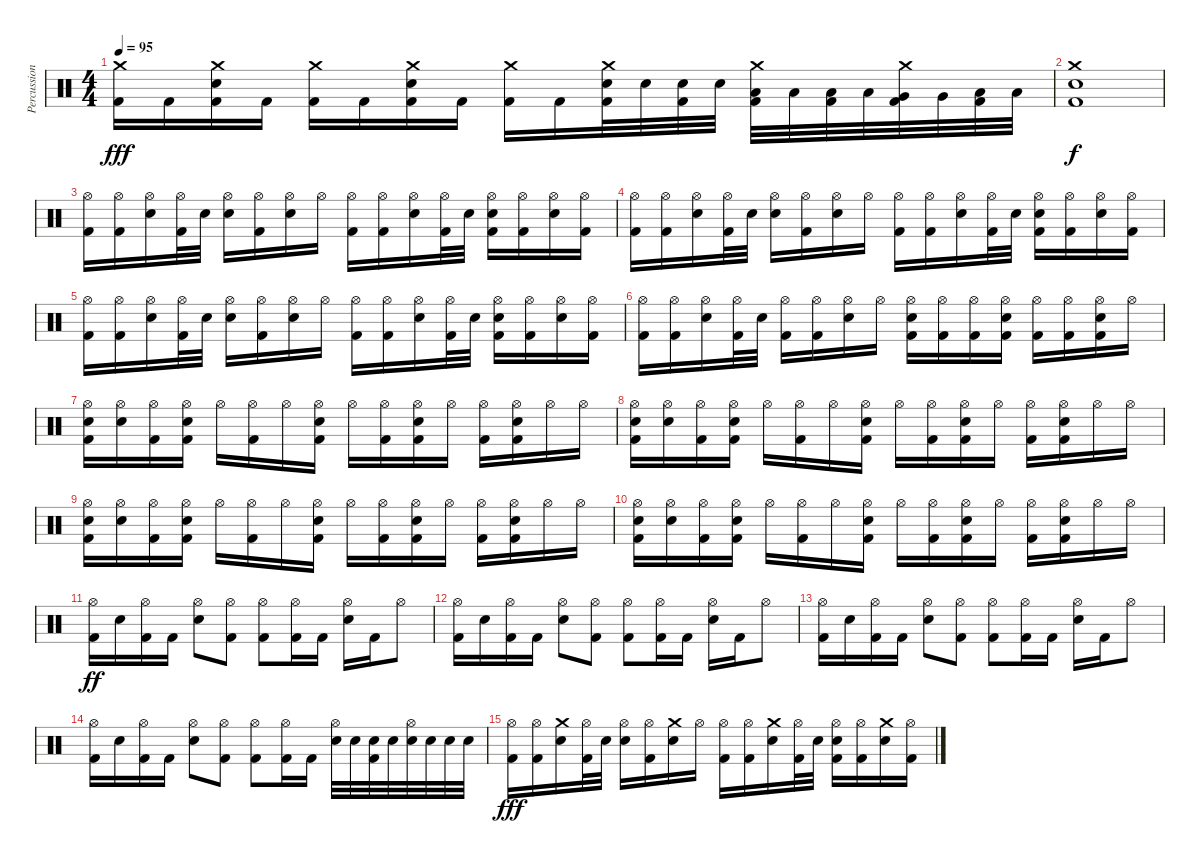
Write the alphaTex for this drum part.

\track ("Percussions" "Percussion") {instrument percussion}
\staff {score}
\articulation defaults
\ts (4 4)
\tempo 95
\clef neutral
\ks c
("Crash medium (hit)" "Kick (hit) 2").16{dy fff} "Kick (hit) 2".16 ("Electric Snare (hit)" "Crash medium (hit)" "Kick (hit) 2").16 "Kick (hit) 2".16 ("Crash medium (hit)" "Kick (hit) 2").16 "Kick (hit) 2".16 ("Electric Snare (hit)" "Crash medium (hit)" "Kick (hit) 2").16 "Kick (hit) 2".16 ("Crash medium (hit)" "Kick (hit) 2").16 "Kick (hit) 2".16 ("Electric Snare (hit)" "Crash medium (hit)" "Kick (hit) 2").32 "Electric Snare (hit)".32 ("Electric Snare (hit)" "Kick (hit) 2").32 "Electric Snare (hit)".32 ("Low Tom (hit)" "Crash medium (hit)" "Kick (hit) 2").32 "Low Tom (hit)".32 ("Low Tom (hit)" "Kick (hit) 2").32 "Low Tom (hit)".32 ("Very Low Tom (hit)" "Crash medium (hit)" "Kick (hit) 2").32 "Very Low Tom (hit)".32 ("Low Floor Tom (hit)" "Kick (hit) 2").32 "Low Floor Tom (hit)".32 |
("Electric Snare (hit)" "Crash medium (hit)" "Kick (hit) 2").1{dy f} |
("Hi-Hat (open)" "Kick (hit) 2").16 ("Hi-Hat (open)" "Kick (hit) 2").16 ("Electric Snare (hit)" "Hi-Hat (open)").16 ("Hi-Hat (open)" "Kick (hit) 2").32 "Electric Snare (hit)".32 ("Electric Snare (hit)" "Hi-Hat (open)").16 ("Hi-Hat (open)" "Kick (hit) 2").16 ("Electric Snare (hit)" "Hi-Hat (open)").16 "Hi-Hat (open)".16 ("Hi-Hat (open)" "Kick (hit) 2").16 ("Hi-Hat (open)" "Kick (hit) 2").16 ("Electric Snare (hit)" "Hi-Hat (open)").16 ("Hi-Hat (open)" "Kick (hit) 2").32 "Electric Snare (hit)".32 ("Electric Snare (hit)" "Hi-Hat (open)" "Kick (hit) 2").16 ("Hi-Hat (open)" "Kick (hit) 2").16 ("Electric Snare (hit)" "Hi-Hat (open)").16 ("Hi-Hat (open)" "Kick (hit) 2").16 |
("Hi-Hat (open)" "Kick (hit) 2").16 ("Hi-Hat (open)" "Kick (hit) 2").16 ("Electric Snare (hit)" "Hi-Hat (open)").16 ("Hi-Hat (open)" "Kick (hit) 2").32 "Electric Snare (hit)".32 ("Electric Snare (hit)" "Hi-Hat (open)").16 ("Hi-Hat (open)" "Kick (hit) 2").16 ("Electric Snare (hit)" "Hi-Hat (open)").16 "Hi-Hat (open)".16 ("Hi-Hat (open)" "Kick (hit) 2").16 ("Hi-Hat (open)" "Kick (hit) 2").16 ("Electric Snare (hit)" "Hi-Hat (open)").16 ("Hi-Hat (open)" "Kick (hit) 2").32 "Electric Snare (hit)".32 ("Electric Snare (hit)" "Hi-Hat (open)" "Kick (hit) 2").16 ("Hi-Hat (open)" "Kick (hit) 2").16 ("Electric Snare (hit)" "Hi-Hat (open)").16 ("Hi-Hat (open)" "Kick (hit) 2").16 |
("Hi-Hat (open)" "Kick (hit) 2").16 ("Hi-Hat (open)" "Kick (hit) 2").16 ("Electric Snare (hit)" "Hi-Hat (open)").16 ("Hi-Hat (open)" "Kick (hit) 2").32 "Electric Snare (hit)".32 ("Electric Snare (hit)" "Hi-Hat (open)").16 ("Hi-Hat (open)" "Kick (hit) 2").16 ("Electric Snare (hit)" "Hi-Hat (open)").16 "Hi-Hat (open)".16 ("Hi-Hat (open)" "Kick (hit) 2").16 ("Hi-Hat (open)" "Kick (hit) 2").16 ("Electric Snare (hit)" "Hi-Hat (open)").16 ("Hi-Hat (open)" "Kick (hit) 2").32 "Electric Snare (hit)".32 ("Electric Snare (hit)" "Hi-Hat (open)" "Kick (hit) 2").16 ("Hi-Hat (open)" "Kick (hit) 2").16 ("Electric Snare (hit)" "Hi-Hat (open)").16 ("Hi-Hat (open)" "Kick (hit) 2").16 |
("Hi-Hat (open)" "Kick (hit) 2").16 ("Hi-Hat (open)" "Kick (hit) 2").16 ("Electric Snare (hit)" "Hi-Hat (open)").16 ("Hi-Hat (open)" "Kick (hit) 2").32 "Electric Snare (hit)".32 ("Hi-Hat (open)" "Kick (hit) 2").16 ("Hi-Hat (open)" "Kick (hit) 2").16 ("Electric Snare (hit)" "Hi-Hat (open)").16 "Hi-Hat (open)".16 ("Electric Snare (hit)" "Hi-Hat (open)" "Kick (hit) 2").16 ("Hi-Hat (open)" "Kick (hit) 2").16 ("Hi-Hat (open)" "Kick (hit) 2").16 ("Electric Snare (hit)" "Hi-Hat (open)" "Kick (hit) 2").16 ("Hi-Hat (open)" "Kick (hit) 2").16 ("Hi-Hat (open)" "Kick (hit) 2").16 ("Electric Snare (hit)" "Hi-Hat (open)" "Kick (hit) 2").16 "Hi-Hat (open)".16 |
("Electric Snare (hit)" "Hi-Hat (open)" "Kick (hit) 2").16 ("Electric Snare (hit)" "Hi-Hat (open)").16 ("Hi-Hat (open)" "Kick (hit) 2").16 ("Electric Snare (hit)" "Hi-Hat (open)" "Kick (hit) 2").16 "Hi-Hat (open)".16 ("Hi-Hat (open)" "Kick (hit) 2").16 "Hi-Hat (open)".16 ("Electric Snare (hit)" "Hi-Hat (open)" "Kick (hit) 2").16 "Hi-Hat (open)".16 ("Hi-Hat (open)" "Kick (hit) 2").16 ("Electric Snare (hit)" "Hi-Hat (open)" "Kick (hit) 2").16 "Hi-Hat (open)".16 ("Hi-Hat (open)" "Kick (hit) 2").16 ("Electric Snare (hit)" "Hi-Hat (open)" "Kick (hit) 2").16 "Hi-Hat (open)".16 "Hi-Hat (open)".16 |
("Electric Snare (hit)" "Hi-Hat (open)" "Kick (hit) 2").16 ("Electric Snare (hit)" "Hi-Hat (open)").16 ("Hi-Hat (open)" "Kick (hit) 2").16 ("Electric Snare (hit)" "Hi-Hat (open)" "Kick (hit) 2").16 "Hi-Hat (open)".16 ("Hi-Hat (open)" "Kick (hit) 2").16 "Hi-Hat (open)".16 ("Electric Snare (hit)" "Hi-Hat (open)" "Kick (hit) 2").16 "Hi-Hat (open)".16 ("Hi-Hat (open)" "Kick (hit) 2").16 ("Electric Snare (hit)" "Hi-Hat (open)" "Kick (hit) 2").16 "Hi-Hat (open)".16 ("Hi-Hat (open)" "Kick (hit) 2").16 ("Electric Snare (hit)" "Hi-Hat (open)" "Kick (hit) 2").16 "Hi-Hat (open)".16 "Hi-Hat (open)".16 |
("Electric Snare (hit)" "Hi-Hat (open)" "Kick (hit) 2").16 ("Electric Snare (hit)" "Hi-Hat (open)").16 ("Hi-Hat (open)" "Kick (hit) 2").16 ("Electric Snare (hit)" "Hi-Hat (open)" "Kick (hit) 2").16 "Hi-Hat (open)".16 ("Hi-Hat (open)" "Kick (hit) 2").16 "Hi-Hat (open)".16 ("Electric Snare (hit)" "Hi-Hat (open)" "Kick (hit) 2").16 "Hi-Hat (open)".16 ("Hi-Hat (open)" "Kick (hit) 2").16 ("Electric Snare (hit)" "Hi-Hat (open)" "Kick (hit) 2").16 "Hi-Hat (open)".16 ("Hi-Hat (open)" "Kick (hit) 2").16 ("Electric Snare (hit)" "Hi-Hat (open)" "Kick (hit) 2").16 "Hi-Hat (open)".16 "Hi-Hat (open)".16 |
("Electric Snare (hit)" "Hi-Hat (open)" "Kick (hit) 2").16 ("Electric Snare (hit)" "Hi-Hat (open)").16 ("Hi-Hat (open)" "Kick (hit) 2").16 ("Electric Snare (hit)" "Hi-Hat (open)" "Kick (hit) 2").16 "Hi-Hat (open)".16 ("Hi-Hat (open)" "Kick (hit) 2").16 "Hi-Hat (open)".16 ("Electric Snare (hit)" "Hi-Hat (open)" "Kick (hit) 2").16 "Hi-Hat (open)".16 ("Hi-Hat (open)" "Kick (hit) 2").16 ("Electric Snare (hit)" "Hi-Hat (open)" "Kick (hit) 2").16 "Hi-Hat (open)".16 ("Hi-Hat (open)" "Kick (hit) 2").16 ("Electric Snare (hit)" "Hi-Hat (open)" "Kick (hit) 2").16 "Hi-Hat (open)".16 "Hi-Hat (open)".16 |
("Hi-Hat (open)" "Kick (hit) 2").16{dy ff} "Electric Snare (hit)".16 ("Hi-Hat (open)" "Kick (hit) 2").16 "Kick (hit) 2".16 ("Electric Snare (hit)" "Hi-Hat (open)").8 ("Hi-Hat (open)" "Kick (hit) 2").8 ("Hi-Hat (open)" "Kick (hit) 2").8 ("Hi-Hat (open)" "Kick (hit) 2").16 "Kick (hit) 2".16 ("Electric Snare (hit)" "Hi-Hat (open)").16 "Kick (hit) 2".16 "Hi-Hat (open)".8 |
("Hi-Hat (open)" "Kick (hit) 2").16 "Electric Snare (hit)".16 ("Hi-Hat (open)" "Kick (hit) 2").16 "Kick (hit) 2".16 ("Electric Snare (hit)" "Hi-Hat (open)").8 ("Hi-Hat (open)" "Kick (hit) 2").8 ("Hi-Hat (open)" "Kick (hit) 2").8 ("Hi-Hat (open)" "Kick (hit) 2").16 "Kick (hit) 2".16 ("Electric Snare (hit)" "Hi-Hat (open)").16 "Kick (hit) 2".16 "Hi-Hat (open)".8 |
("Hi-Hat (open)" "Kick (hit) 2").16 "Electric Snare (hit)".16 ("Hi-Hat (open)" "Kick (hit) 2").16 "Kick (hit) 2".16 ("Electric Snare (hit)" "Hi-Hat (open)").8 ("Hi-Hat (open)" "Kick (hit) 2").8 ("Hi-Hat (open)" "Kick (hit) 2").8 ("Hi-Hat (open)" "Kick (hit) 2").16 "Kick (hit) 2".16 ("Electric Snare (hit)" "Hi-Hat (open)").16 "Kick (hit) 2".16 "Hi-Hat (open)".8 |
("Hi-Hat (open)" "Kick (hit) 2").16 "Electric Snare (hit)".16 ("Hi-Hat (open)" "Kick (hit) 2").16 "Kick (hit) 2".16 ("Electric Snare (hit)" "Hi-Hat (open)").8 ("Hi-Hat (open)" "Kick (hit) 2").8 ("Hi-Hat (open)" "Kick (hit) 2").8 ("Hi-Hat (open)" "Kick (hit) 2").16 "Kick (hit) 2".16 ("Electric Snare (hit)" "Hi-Hat (open)").32 "Electric Snare (hit)".32 ("Electric Snare (hit)" "Kick (hit) 2").32 "Electric Snare (hit)".32 ("Electric Snare (hit)" "Hi-Hat (open)").32 "Electric Snare (hit)".32 "Electric Snare (hit)".32 "Electric Snare (hit)".32 |
("Hi-Hat (open)" "Kick (hit) 2").16{dy fff} ("Hi-Hat (open)" "Kick (hit) 2").16 ("Electric Snare (hit)" "Crash medium (hit)").16 ("Hi-Hat (open)" "Kick (hit) 2").32 "Electric Snare (hit)".32 ("Electric Snare (hit)" "Hi-Hat (open)").16 ("Hi-Hat (open)" "Kick (hit) 2").16 ("Electric Snare (hit)" "Crash medium (hit)").16 "Hi-Hat (open)".16 ("Hi-Hat (open)" "Kick (hit) 2").16 ("Hi-Hat (open)" "Kick (hit) 2").16 ("Electric Snare (hit)" "Crash medium (hit)").16 ("Hi-Hat (open)" "Kick (hit) 2").32 "Electric Snare (hit)".32 ("Electric Snare (hit)" "Hi-Hat (open)" "Kick (hit) 2").16 ("Hi-Hat (open)" "Kick (hit) 2").16 ("Electric Snare (hit)" "Crash medium (hit)").16 ("Hi-Hat (open)" "Kick (hit) 2").16
